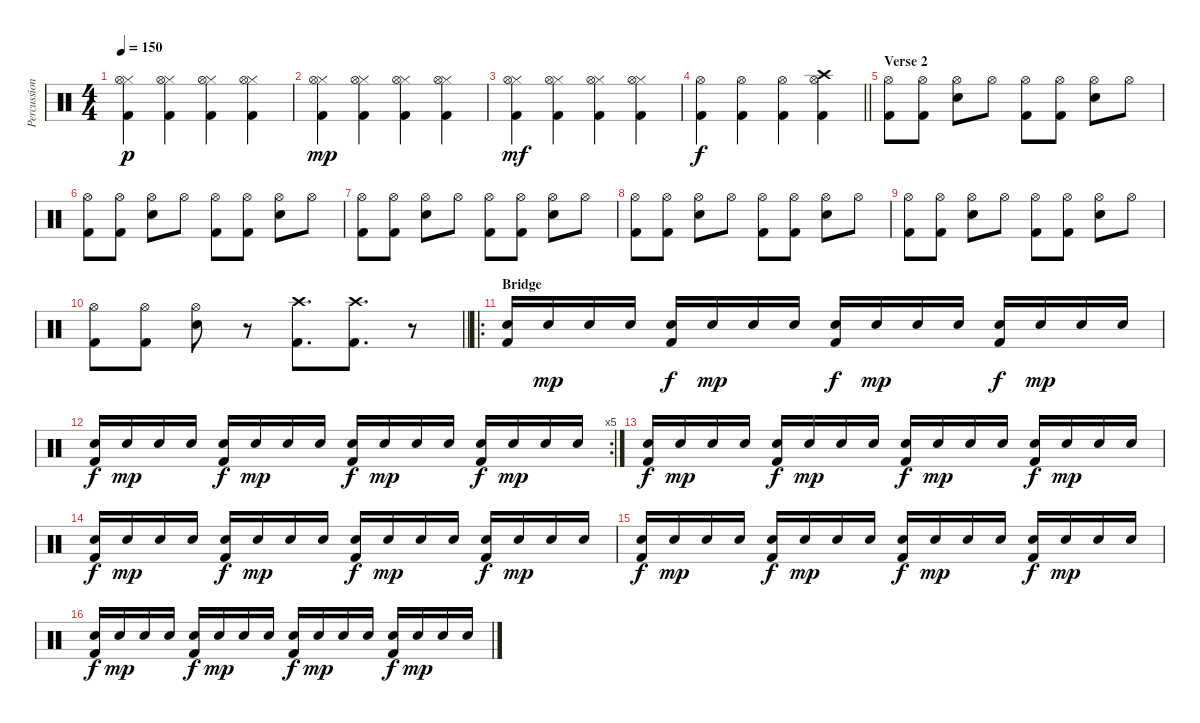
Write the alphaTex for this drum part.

\track ("Percussion" "Percussion") {instrument percussion}
\staff
\articulation defaults
\ts (4 4)
\tempo 150
\clef neutral
\ks c
("Hi-Hat (closed)" "Hi-Hat (open)" "Kick (hit) 2").4{dy p} ("Hi-Hat (closed)" "Hi-Hat (open)" "Kick (hit) 2").4 ("Hi-Hat (closed)" "Hi-Hat (open)" "Kick (hit) 2").4 ("Hi-Hat (closed)" "Hi-Hat (open)" "Kick (hit) 2").4 |
("Hi-Hat (closed)" "Hi-Hat (open)" "Kick (hit) 2").4{dy mp} ("Hi-Hat (closed)" "Hi-Hat (open)" "Kick (hit) 2").4 ("Hi-Hat (closed)" "Hi-Hat (open)" "Kick (hit) 2").4 ("Hi-Hat (closed)" "Hi-Hat (open)" "Kick (hit) 2").4 |
("Hi-Hat (closed)" "Hi-Hat (open)" "Kick (hit) 2").4{dy mf} ("Hi-Hat (closed)" "Hi-Hat (open)" "Kick (hit) 2").4 ("Hi-Hat (closed)" "Hi-Hat (open)" "Kick (hit) 2").4 ("Hi-Hat (closed)" "Hi-Hat (open)" "Kick (hit) 2").4 |
\barLineRight lightlight
("Hi-Hat (open)" "Kick (hit) 2").4{dy f} ("Hi-Hat (open)" "Kick (hit) 2").4 ("Hi-Hat (open)" "Kick (hit) 2").4 ("Crash high (hit)" "Hi-Hat (open)" "Kick (hit) 2").4 |
\section ("" "Verse 2")
("Hi-Hat (open)" "Kick (hit) 2").8 ("Hi-Hat (open)" "Kick (hit) 2").8 ("Hi-Hat (open)" "Snare (hit) 2").8 "Hi-Hat (open)".8 ("Hi-Hat (open)" "Kick (hit) 2").8 ("Hi-Hat (open)" "Kick (hit) 2").8 ("Hi-Hat (open)" "Snare (hit) 2").8 "Hi-Hat (open)".8 |
("Hi-Hat (open)" "Kick (hit) 2").8 ("Hi-Hat (open)" "Kick (hit) 2").8 ("Hi-Hat (open)" "Snare (hit) 2").8 "Hi-Hat (open)".8 ("Hi-Hat (open)" "Kick (hit) 2").8 ("Hi-Hat (open)" "Kick (hit) 2").8 ("Hi-Hat (open)" "Snare (hit) 2").8 "Hi-Hat (open)".8 |
("Hi-Hat (open)" "Kick (hit) 2").8 ("Hi-Hat (open)" "Kick (hit) 2").8 ("Hi-Hat (open)" "Snare (hit) 2").8 "Hi-Hat (open)".8 ("Hi-Hat (open)" "Kick (hit) 2").8 ("Hi-Hat (open)" "Kick (hit) 2").8 ("Hi-Hat (open)" "Snare (hit) 2").8 "Hi-Hat (open)".8 |
("Hi-Hat (open)" "Kick (hit) 2").8 ("Hi-Hat (open)" "Kick (hit) 2").8 ("Hi-Hat (open)" "Snare (hit) 2").8 "Hi-Hat (open)".8 ("Hi-Hat (open)" "Kick (hit) 2").8 ("Hi-Hat (open)" "Kick (hit) 2").8 ("Hi-Hat (open)" "Snare (hit) 2").8 "Hi-Hat (open)".8 |
("Hi-Hat (open)" "Kick (hit) 2").8 ("Hi-Hat (open)" "Kick (hit) 2").8 ("Hi-Hat (open)" "Snare (hit) 2").8 "Hi-Hat (open)".8 ("Hi-Hat (open)" "Kick (hit) 2").8 ("Hi-Hat (open)" "Kick (hit) 2").8 ("Hi-Hat (open)" "Snare (hit) 2").8 "Hi-Hat (open)".8 |
\barLineRight lightlight
("Hi-Hat (open)" "Kick (hit) 2").8 ("Hi-Hat (open)" "Kick (hit) 2").8 ("Hi-Hat (open)" "Snare (hit) 2").8 r.8 ("Crash high (hit)" "Kick (hit) 2").8{d} ("Crash high (hit)" "Kick (hit) 2").8{d} r.8 |
\ro
\section ("" "Bridge")
("Snare (hit) 2" "Kick (hit) 2").16 "Snare (hit) 2".16{dy mp} "Snare (hit) 2".16 "Snare (hit) 2".16 ("Snare (hit) 2" "Kick (hit) 2").16{dy f} "Snare (hit) 2".16{dy mp} "Snare (hit) 2".16 "Snare (hit) 2".16 ("Snare (hit) 2" "Kick (hit) 2").16{dy f} "Snare (hit) 2".16{dy mp} "Snare (hit) 2".16 "Snare (hit) 2".16 ("Snare (hit) 2" "Kick (hit) 2").16{dy f} "Snare (hit) 2".16{dy mp} "Snare (hit) 2".16 "Snare (hit) 2".16 |
\rc 5
("Snare (hit) 2" "Kick (hit) 2").16{dy f} "Snare (hit) 2".16{dy mp} "Snare (hit) 2".16 "Snare (hit) 2".16 ("Snare (hit) 2" "Kick (hit) 2").16{dy f} "Snare (hit) 2".16{dy mp} "Snare (hit) 2".16 "Snare (hit) 2".16 ("Snare (hit) 2" "Kick (hit) 2").16{dy f} "Snare (hit) 2".16{dy mp} "Snare (hit) 2".16 "Snare (hit) 2".16 ("Snare (hit) 2" "Kick (hit) 2").16{dy f} "Snare (hit) 2".16{dy mp} "Snare (hit) 2".16 "Snare (hit) 2".16 |
("Snare (hit) 2" "Kick (hit) 2").16{dy f} "Snare (hit) 2".16{dy mp} "Snare (hit) 2".16 "Snare (hit) 2".16 ("Snare (hit) 2" "Kick (hit) 2").16{dy f} "Snare (hit) 2".16{dy mp} "Snare (hit) 2".16 "Snare (hit) 2".16 ("Snare (hit) 2" "Kick (hit) 2").16{dy f} "Snare (hit) 2".16{dy mp} "Snare (hit) 2".16 "Snare (hit) 2".16 ("Snare (hit) 2" "Kick (hit) 2").16{dy f} "Snare (hit) 2".16{dy mp} "Snare (hit) 2".16 "Snare (hit) 2".16 |
("Snare (hit) 2" "Kick (hit) 2").16{dy f} "Snare (hit) 2".16{dy mp} "Snare (hit) 2".16 "Snare (hit) 2".16 ("Snare (hit) 2" "Kick (hit) 2").16{dy f} "Snare (hit) 2".16{dy mp} "Snare (hit) 2".16 "Snare (hit) 2".16 ("Snare (hit) 2" "Kick (hit) 2").16{dy f} "Snare (hit) 2".16{dy mp} "Snare (hit) 2".16 "Snare (hit) 2".16 ("Snare (hit) 2" "Kick (hit) 2").16{dy f} "Snare (hit) 2".16{dy mp} "Snare (hit) 2".16 "Snare (hit) 2".16 |
("Snare (hit) 2" "Kick (hit) 2").16{dy f} "Snare (hit) 2".16{dy mp} "Snare (hit) 2".16 "Snare (hit) 2".16 ("Snare (hit) 2" "Kick (hit) 2").16{dy f} "Snare (hit) 2".16{dy mp} "Snare (hit) 2".16 "Snare (hit) 2".16 ("Snare (hit) 2" "Kick (hit) 2").16{dy f} "Snare (hit) 2".16{dy mp} "Snare (hit) 2".16 "Snare (hit) 2".16 ("Snare (hit) 2" "Kick (hit) 2").16{dy f} "Snare (hit) 2".16{dy mp} "Snare (hit) 2".16 "Snare (hit) 2".16 |
("Snare (hit) 2" "Kick (hit) 2").16{dy f} "Snare (hit) 2".16{dy mp} "Snare (hit) 2".16 "Snare (hit) 2".16 ("Snare (hit) 2" "Kick (hit) 2").16{dy f} "Snare (hit) 2".16{dy mp} "Snare (hit) 2".16 "Snare (hit) 2".16 ("Snare (hit) 2" "Kick (hit) 2").16{dy f} "Snare (hit) 2".16{dy mp} "Snare (hit) 2".16 "Snare (hit) 2".16 ("Snare (hit) 2" "Kick (hit) 2").16{dy f} "Snare (hit) 2".16{dy mp} "Snare (hit) 2".16 "Snare (hit) 2".16
